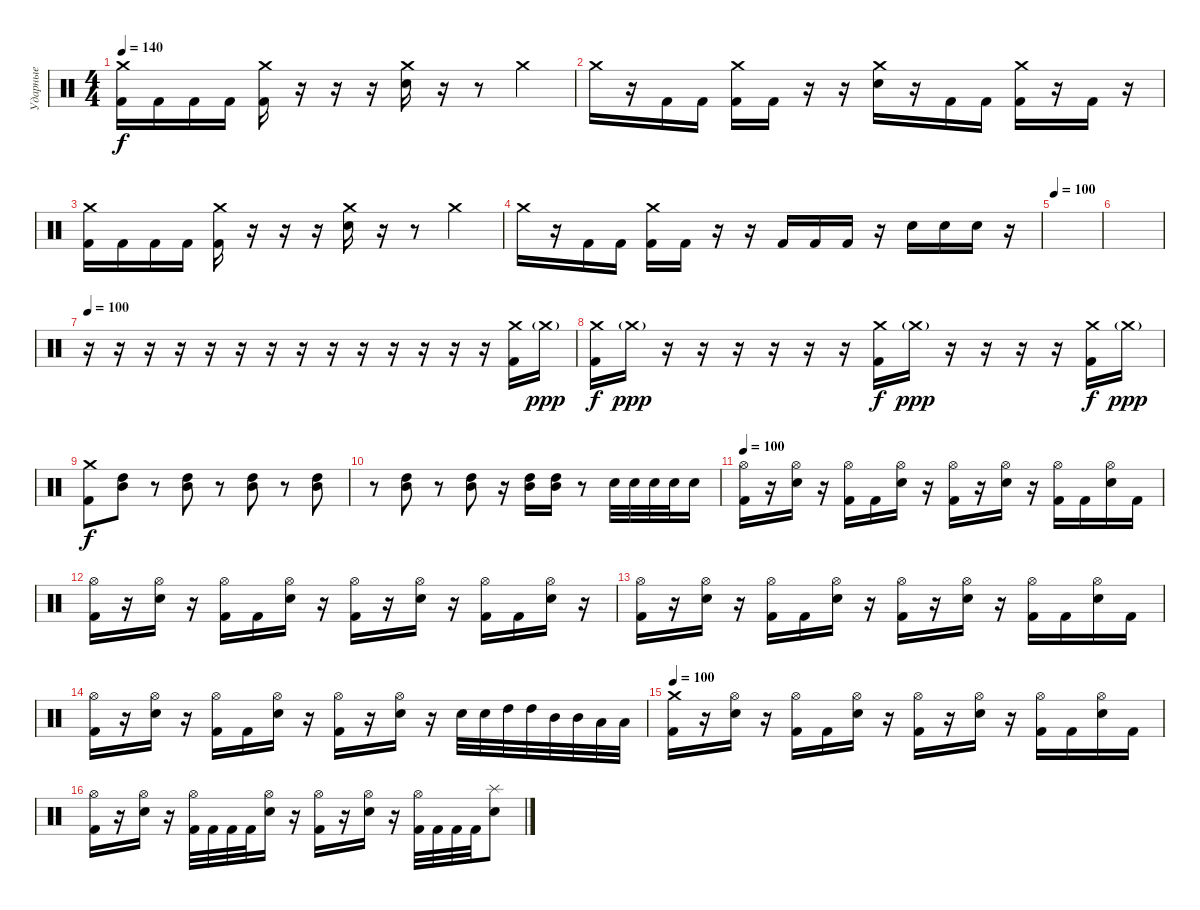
\track ("Ударные" "Ударные") {instrument percussion}
\staff {score}
\articulation defaults
\ts (4 4)
\tempo 140
\clef neutral
\ks c
("Crash medium (hit)" "Kick (hit) 2").16{dy f} "Kick (hit) 2".16 "Kick (hit) 2".16 "Kick (hit) 2".16 ("Crash medium (hit)" "Kick (hit) 2").16 r.16 r.16 r.16 ("Crash medium (hit)" "Electric Snare (hit)").16 r.16 r.8 "Crash medium (hit)".4 |
"Crash medium (hit)".16 r.16 "Kick (hit) 2".16 "Kick (hit) 2".16 ("Crash medium (hit)" "Kick (hit) 2").16 "Kick (hit) 2".16 r.16 r.16 ("Crash medium (hit)" "Electric Snare (hit)").16 r.16 "Kick (hit) 2".16 "Kick (hit) 2".16 ("Crash medium (hit)" "Kick (hit) 2").16 r.16 "Kick (hit) 2".16 r.16 |
("Crash medium (hit)" "Kick (hit) 2").16 "Kick (hit) 2".16 "Kick (hit) 2".16 "Kick (hit) 2".16 ("Crash medium (hit)" "Kick (hit) 2").16 r.16 r.16 r.16 ("Crash medium (hit)" "Electric Snare (hit)").16 r.16 r.8 "Crash medium (hit)".4 |
"Crash medium (hit)".16 r.16 "Kick (hit) 2".16 "Kick (hit) 2".16 ("Crash medium (hit)" "Kick (hit) 2").16 "Kick (hit) 2".16 r.16 r.16 "Kick (hit) 2".16 "Kick (hit) 2".16 "Kick (hit) 2".16 r.16 "Electric Snare (hit)".16 "Electric Snare (hit)".16 "Electric Snare (hit)".16 r.16 |
\tempo 100
|
|
\tempo 100
r.16 r.16 r.16 r.16 r.16 r.16 r.16 r.16 r.16 r.16 r.16 r.16 r.16 r.16 ("Crash medium (hit)" "Kick (hit) 2").16 "Crash medium (hit)"{g}.16{dy ppp} |
("Crash medium (hit)" "Kick (hit) 2").16{dy f} "Crash medium (hit)"{g}.16{dy ppp} r.16 r.16 r.16 r.16 r.16 r.16 ("Crash medium (hit)" "Kick (hit) 2").16{dy f} "Crash medium (hit)"{g}.16{dy ppp} r.16 r.16 r.16 r.16 ("Crash medium (hit)" "Kick (hit) 2").16{dy f} "Crash medium (hit)"{g}.16{dy ppp} |
("Crash medium (hit)" "Kick (hit) 2").8{dy f} ("Mid Tom (hit)" "High Tom (hit)").8 r.8 ("Mid Tom (hit)" "High Tom (hit)").8 r.8 ("Mid Tom (hit)" "High Tom (hit)").8 r.8 ("Mid Tom (hit)" "High Tom (hit)").8 |
r.8 ("Mid Tom (hit)" "High Tom (hit)").8 r.8 ("Mid Tom (hit)" "High Tom (hit)").8 r.16 ("Mid Tom (hit)" "High Tom (hit)").16 ("Mid Tom (hit)" "High Tom (hit)").16 r.8 "Electric Snare (hit)".32 "Electric Snare (hit)".32 "Electric Snare (hit)".32 "Electric Snare (hit)".32 "Electric Snare (hit)".16 |
\tempo 100
("Hi-Hat (open)" "Kick (hit) 2").16 r.16 ("Hi-Hat (open)" "Electric Snare (hit)").16 r.16 ("Hi-Hat (open)" "Kick (hit) 2").16 "Kick (hit) 2".16 ("Hi-Hat (open)" "Electric Snare (hit)").16 r.16 ("Hi-Hat (open)" "Kick (hit) 2").16 r.16 ("Hi-Hat (open)" "Electric Snare (hit)").16 r.16 ("Hi-Hat (open)" "Kick (hit) 2").16 "Kick (hit) 2".16 ("Hi-Hat (open)" "Electric Snare (hit)").16 "Kick (hit) 2".16 |
("Hi-Hat (open)" "Kick (hit) 2").16 r.16 ("Hi-Hat (open)" "Electric Snare (hit)").16 r.16 ("Hi-Hat (open)" "Kick (hit) 2").16 "Kick (hit) 2".16 ("Hi-Hat (open)" "Electric Snare (hit)").16 r.16 ("Hi-Hat (open)" "Kick (hit) 2").16 r.16 ("Hi-Hat (open)" "Electric Snare (hit)").16 r.16 ("Hi-Hat (open)" "Kick (hit) 2").16 "Kick (hit) 2".16 ("Hi-Hat (open)" "Electric Snare (hit)").16 r.16 |
("Hi-Hat (open)" "Kick (hit) 2").16 r.16 ("Hi-Hat (open)" "Electric Snare (hit)").16 r.16 ("Hi-Hat (open)" "Kick (hit) 2").16 "Kick (hit) 2".16 ("Hi-Hat (open)" "Electric Snare (hit)").16 r.16 ("Hi-Hat (open)" "Kick (hit) 2").16 r.16 ("Hi-Hat (open)" "Electric Snare (hit)").16 r.16 ("Hi-Hat (open)" "Kick (hit) 2").16 "Kick (hit) 2".16 ("Hi-Hat (open)" "Electric Snare (hit)").16 "Kick (hit) 2".16 |
("Hi-Hat (open)" "Kick (hit) 2").16 r.16 ("Hi-Hat (open)" "Electric Snare (hit)").16 r.16 ("Hi-Hat (open)" "Kick (hit) 2").16 "Kick (hit) 2".16 ("Hi-Hat (open)" "Electric Snare (hit)").16 r.16 ("Hi-Hat (open)" "Kick (hit) 2").16 r.16 ("Hi-Hat (open)" "Electric Snare (hit)").16 r.16 "Electric Snare (hit)".32 "Electric Snare (hit)".32 "High Tom (hit)".32 "High Tom (hit)".32 "Mid Tom (hit)".32 "Mid Tom (hit)".32 "Low Tom (hit)".32 "Low Tom (hit)".32 |
\tempo 100
("Crash medium (hit)" "Kick (hit) 2").16 r.16 ("Hi-Hat (open)" "Electric Snare (hit)").16 r.16 ("Hi-Hat (open)" "Kick (hit) 2").16 "Kick (hit) 2".16 ("Hi-Hat (open)" "Electric Snare (hit)").16 r.16 ("Hi-Hat (open)" "Kick (hit) 2").16 r.16 ("Hi-Hat (open)" "Electric Snare (hit)").16 r.16 ("Hi-Hat (open)" "Kick (hit) 2").16 "Kick (hit) 2".16 ("Hi-Hat (open)" "Electric Snare (hit)").16 "Kick (hit) 2".16 |
("Hi-Hat (open)" "Kick (hit) 2").16 r.16 ("Hi-Hat (open)" "Electric Snare (hit)").16 r.16 ("Hi-Hat (open)" "Kick (hit) 2").32 "Kick (hit) 2".32 "Kick (hit) 2".32 "Kick (hit) 2".32 ("Hi-Hat (open)" "Electric Snare (hit)").16 r.16 ("Hi-Hat (open)" "Kick (hit) 2").16 r.16 ("Hi-Hat (open)" "Electric Snare (hit)").16 r.16 ("Hi-Hat (open)" "Kick (hit) 2").32 "Kick (hit) 2".32 "Kick (hit) 2".32 "Kick (hit) 2".32 ("Splash (hit)" "Electric Snare (hit)").8
